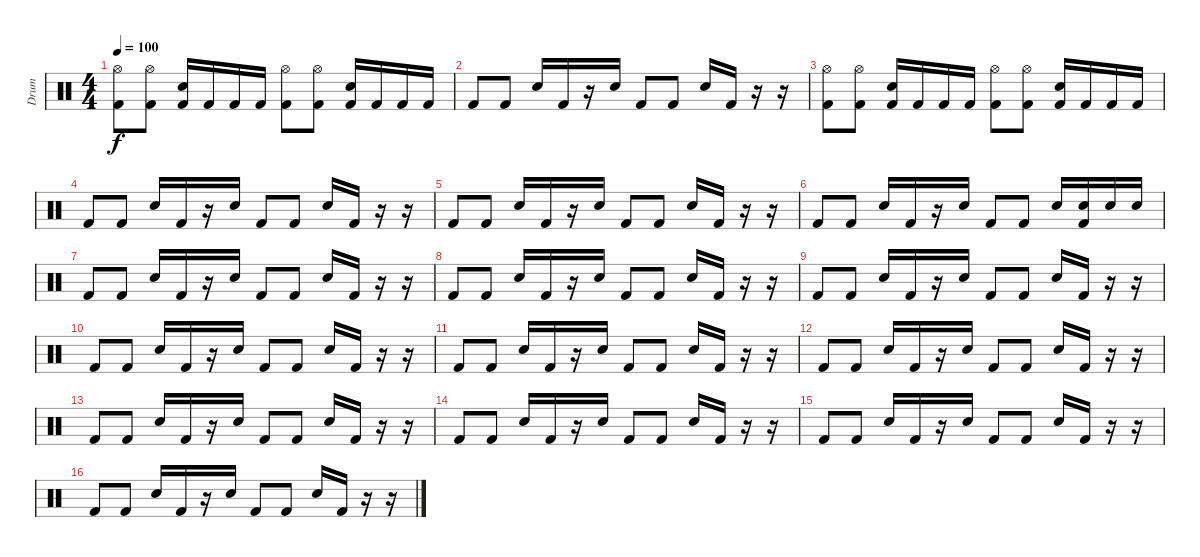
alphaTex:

\track ("Drum" "Drum") {instrument percussion}
\staff {score}
\articulation defaults
\ts (4 4)
\tempo 100
\clef neutral
\ks c
("Hi-Hat (open)" "Kick (hit) 2").8{dy f} ("Hi-Hat (open)" "Kick (hit) 2").8 ("Electric Snare (hit)" "Kick (hit) 2").16 "Kick (hit) 2".16 "Kick (hit) 2".16 "Kick (hit) 2".16 ("Hi-Hat (open)" "Kick (hit) 2").8 ("Hi-Hat (open)" "Kick (hit) 2").8 ("Electric Snare (hit)" "Kick (hit) 2").16 "Kick (hit) 2".16 "Kick (hit) 2".16 "Kick (hit) 2".16 |
"Kick (hit) 2".8 "Kick (hit) 2".8 "Electric Snare (hit)".16 "Kick (hit) 2".16 r.16 "Electric Snare (hit)".16 "Kick (hit) 2".8 "Kick (hit) 2".8 "Electric Snare (hit)".16 "Kick (hit) 2".16 r.16 r.16 |
("Hi-Hat (open)" "Kick (hit) 2").8 ("Hi-Hat (open)" "Kick (hit) 2").8 ("Electric Snare (hit)" "Kick (hit) 2").16 "Kick (hit) 2".16 "Kick (hit) 2".16 "Kick (hit) 2".16 ("Hi-Hat (open)" "Kick (hit) 2").8 ("Hi-Hat (open)" "Kick (hit) 2").8 ("Electric Snare (hit)" "Kick (hit) 2").16 "Kick (hit) 2".16 "Kick (hit) 2".16 "Kick (hit) 2".16 |
"Kick (hit) 2".8 "Kick (hit) 2".8 "Electric Snare (hit)".16 "Kick (hit) 2".16 r.16 "Electric Snare (hit)".16 "Kick (hit) 2".8 "Kick (hit) 2".8 "Electric Snare (hit)".16 "Kick (hit) 2".16 r.16 r.16 |
"Kick (hit) 2".8 "Kick (hit) 2".8 "Electric Snare (hit)".16 "Kick (hit) 2".16 r.16 "Electric Snare (hit)".16 "Kick (hit) 2".8 "Kick (hit) 2".8 "Electric Snare (hit)".16 "Kick (hit) 2".16 r.16 r.16 |
"Kick (hit) 2".8 "Kick (hit) 2".8 "Electric Snare (hit)".16 "Kick (hit) 2".16 r.16 "Electric Snare (hit)".16 "Kick (hit) 2".8 "Kick (hit) 2".8 "Electric Snare (hit)".16 ("Electric Snare (hit)" "Kick (hit) 2").16 "Electric Snare (hit)".16 "Electric Snare (hit)".16 |
"Kick (hit) 2".8 "Kick (hit) 2".8 "Electric Snare (hit)".16 "Kick (hit) 2".16 r.16 "Electric Snare (hit)".16 "Kick (hit) 2".8 "Kick (hit) 2".8 "Electric Snare (hit)".16 "Kick (hit) 2".16 r.16 r.16 |
"Kick (hit) 2".8 "Kick (hit) 2".8 "Electric Snare (hit)".16 "Kick (hit) 2".16 r.16 "Electric Snare (hit)".16 "Kick (hit) 2".8 "Kick (hit) 2".8 "Electric Snare (hit)".16 "Kick (hit) 2".16 r.16 r.16 |
"Kick (hit) 2".8 "Kick (hit) 2".8 "Electric Snare (hit)".16 "Kick (hit) 2".16 r.16 "Electric Snare (hit)".16 "Kick (hit) 2".8 "Kick (hit) 2".8 "Electric Snare (hit)".16 "Kick (hit) 2".16 r.16 r.16 |
"Kick (hit) 2".8 "Kick (hit) 2".8 "Electric Snare (hit)".16 "Kick (hit) 2".16 r.16 "Electric Snare (hit)".16 "Kick (hit) 2".8 "Kick (hit) 2".8 "Electric Snare (hit)".16 "Kick (hit) 2".16 r.16 r.16 |
"Kick (hit) 2".8 "Kick (hit) 2".8 "Electric Snare (hit)".16 "Kick (hit) 2".16 r.16 "Electric Snare (hit)".16 "Kick (hit) 2".8 "Kick (hit) 2".8 "Electric Snare (hit)".16 "Kick (hit) 2".16 r.16 r.16 |
"Kick (hit) 2".8 "Kick (hit) 2".8 "Electric Snare (hit)".16 "Kick (hit) 2".16 r.16 "Electric Snare (hit)".16 "Kick (hit) 2".8 "Kick (hit) 2".8 "Electric Snare (hit)".16 "Kick (hit) 2".16 r.16 r.16 |
"Kick (hit) 2".8 "Kick (hit) 2".8 "Electric Snare (hit)".16 "Kick (hit) 2".16 r.16 "Electric Snare (hit)".16 "Kick (hit) 2".8 "Kick (hit) 2".8 "Electric Snare (hit)".16 "Kick (hit) 2".16 r.16 r.16 |
"Kick (hit) 2".8 "Kick (hit) 2".8 "Electric Snare (hit)".16 "Kick (hit) 2".16 r.16 "Electric Snare (hit)".16 "Kick (hit) 2".8 "Kick (hit) 2".8 "Electric Snare (hit)".16 "Kick (hit) 2".16 r.16 r.16 |
"Kick (hit) 2".8 "Kick (hit) 2".8 "Electric Snare (hit)".16 "Kick (hit) 2".16 r.16 "Electric Snare (hit)".16 "Kick (hit) 2".8 "Kick (hit) 2".8 "Electric Snare (hit)".16 "Kick (hit) 2".16 r.16 r.16 |
"Kick (hit) 2".8 "Kick (hit) 2".8 "Electric Snare (hit)".16 "Kick (hit) 2".16 r.16 "Electric Snare (hit)".16 "Kick (hit) 2".8 "Kick (hit) 2".8 "Electric Snare (hit)".16 "Kick (hit) 2".16 r.16 r.16
